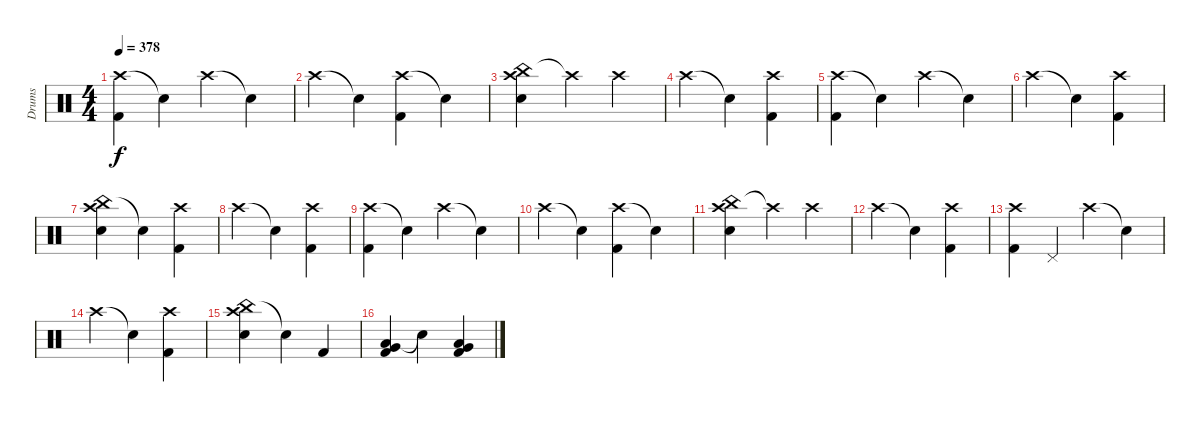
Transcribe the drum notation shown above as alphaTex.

\track ("Drums" "Drums") {instrument percussion}
\staff {score}
\articulation defaults
\ts (4 4)
\tempo 378
\clef neutral
\ks c
("Crash high (hit)" "Kick (hit) 2").4{dy f} "Snare (hit)"{t}.4 "Crash high (hit)".4 "Snare (hit)"{t}.4 |
"Crash high (hit)".4 "Snare (hit)"{t}.4 ("Crash high (hit)" "Kick (hit) 2").4 "Snare (hit)"{t}.4 |
("China (hit)" "Crash high (hit)" "Electric Snare (hit)").4 "Crash high (hit)"{t}.4 "Crash high (hit)".4 |
"Crash high (hit)".4 "Snare (hit)"{t}.4 ("Crash high (hit)" "Kick (hit) 2").4 |
("Crash high (hit)" "Kick (hit) 2").4 "Snare (hit)"{t}.4 "Crash high (hit)".4 "Snare (hit)"{t}.4 |
"Crash high (hit)".4 "Snare (hit)"{t}.4 ("Crash high (hit)" "Kick (hit) 2").4 |
("China (hit)" "Crash high (hit)" "Electric Snare (hit)").4 "Snare (hit)"{t}.4 ("Crash high (hit)" "Kick (hit) 2").4 |
"Crash high (hit)".4 "Snare (hit)"{t}.4 ("Crash high (hit)" "Kick (hit) 2").4 |
("Crash high (hit)" "Kick (hit) 2").4 "Snare (hit)"{t}.4 "Crash high (hit)".4 "Snare (hit)"{t}.4 |
"Crash high (hit)".4 "Snare (hit)"{t}.4 ("Crash high (hit)" "Kick (hit) 2").4 "Snare (hit)"{t}.4 |
("China (hit)" "Crash high (hit)" "Electric Snare (hit)").4 "Crash high (hit)"{t}.4 "Crash high (hit)".4 |
"Crash high (hit)".4 "Snare (hit)"{t}.4 ("Crash high (hit)" "Kick (hit) 2").4 |
("Crash high (hit)" "Kick (hit) 2").4 "Pedal Hi-Hat (hit)".4 "Crash high (hit)".4 "Snare (hit)"{t}.4 |
"Crash high (hit)".4 "Snare (hit)"{t}.4 ("Crash high (hit)" "Kick (hit) 2").4 |
("China (hit)" "Crash high (hit)" "Electric Snare (hit)").4 "Snare (hit)"{t}.4 "Kick (hit) 2".4 |
("Low Floor Tom (hit)" "Very Low Tom (hit)" "Kick (hit) 2").4 "Snare (hit)"{t}.4 ("Low Floor Tom (hit)" "Very Low Tom (hit)" "Kick (hit) 2").4
